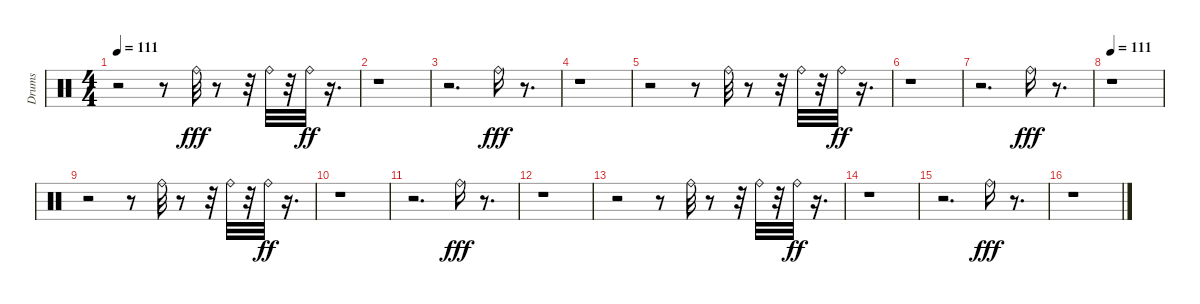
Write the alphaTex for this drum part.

\track ("Drums" "Drums") {instrument percussion}
\staff {score}
\articulation defaults
\ts (4 4)
\tempo 111
\clef neutral
\ks c
r.2{dy fff} r.8 "Ride (bell)".32 r.8 r.32 "Ride (bell)".32 r.32 "Ride (bell)".32{dy ff} r.16{d} |
r.1 |
r.2{d} "Ride (bell)".16{dy fff} r.8{d} |
r.1 |
r.2 r.8 "Ride (bell)".32 r.8 r.32 "Ride (bell)".32 r.32 "Ride (bell)".32{dy ff} r.16{d} |
r.1 |
r.2{d} "Ride (bell)".16{dy fff} r.8{d} |
\tempo 111
r.1 |
r.2 r.8 "Ride (bell)".32 r.8 r.32 "Ride (bell)".32 r.32 "Ride (bell)".32{dy ff} r.16{d} |
r.1 |
r.2{d} "Ride (bell)".16{dy fff} r.8{d} |
r.1 |
r.2 r.8 "Ride (bell)".32 r.8 r.32 "Ride (bell)".32 r.32 "Ride (bell)".32{dy ff} r.16{d} |
r.1 |
r.2{d} "Ride (bell)".16{dy fff} r.8{d} |
r.1
